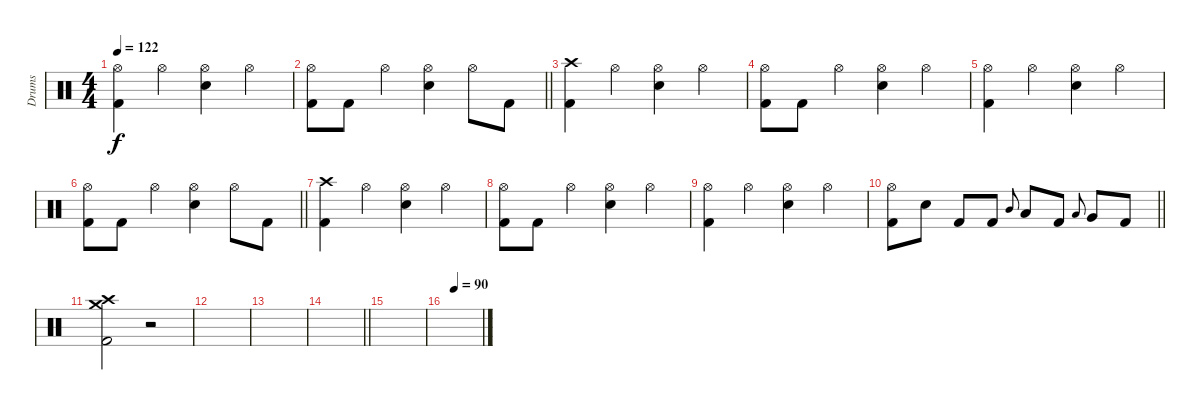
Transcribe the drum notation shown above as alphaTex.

\track ("Drums" "Drums") {instrument percussion}
\staff {score}
\articulation defaults
\ts (4 4)
\tempo 122
\clef neutral
\ks c
("Hi-Hat (open)" "Kick (hit) 2").4{dy f} "Hi-Hat (open)".4 ("Hi-Hat (open)" "Electric Snare (hit)").4 "Hi-Hat (open)".4 |
\barLineRight lightlight
("Hi-Hat (open)" "Kick (hit) 2").8 "Kick (hit) 2".8 "Hi-Hat (open)".4 ("Hi-Hat (open)" "Electric Snare (hit)").4 "Hi-Hat (open)".8 "Kick (hit) 2".8 |
("Crash high (hit)" "Kick (hit) 2").4 "Hi-Hat (open)".4 ("Hi-Hat (open)" "Electric Snare (hit)").4 "Hi-Hat (open)".4 |
("Hi-Hat (open)" "Kick (hit) 2").8 "Kick (hit) 2".8 "Hi-Hat (open)".4 ("Hi-Hat (open)" "Electric Snare (hit)").4 "Hi-Hat (open)".4 |
("Hi-Hat (open)" "Kick (hit) 2").4 "Hi-Hat (open)".4 ("Hi-Hat (open)" "Electric Snare (hit)").4 "Hi-Hat (open)".4 |
\barLineRight lightlight
("Hi-Hat (open)" "Kick (hit) 2").8 "Kick (hit) 2".8 "Hi-Hat (open)".4 ("Hi-Hat (open)" "Electric Snare (hit)").4 "Hi-Hat (open)".8 "Kick (hit) 2".8 |
("Crash high (hit)" "Kick (hit) 2").4 "Hi-Hat (open)".4 ("Hi-Hat (open)" "Electric Snare (hit)").4 "Hi-Hat (open)".4 |
("Hi-Hat (open)" "Kick (hit) 2").8 "Kick (hit) 2".8 "Hi-Hat (open)".4 ("Hi-Hat (open)" "Electric Snare (hit)").4 "Hi-Hat (open)".4 |
("Hi-Hat (open)" "Kick (hit) 2").4 "Hi-Hat (open)".4 ("Hi-Hat (open)" "Electric Snare (hit)").4 "Hi-Hat (open)".4 |
\barLineRight lightlight
("Hi-Hat (open)" "Kick (hit) 2").8 "Electric Snare (hit)".8 "Kick (hit) 2".8 "Kick (hit) 2".8 "Mid Tom (hit)".8{gr onbeat} "Low Tom (hit)".8 "Kick (hit) 2".8 "Low Tom (hit)".8{gr onbeat} "Very Low Tom (hit)".8 "Kick (hit) 2".8 |
("Crash high (hit)" "Crash medium (hit)" "Kick (hit) 2").2 r.2 |
|
|
\barLineRight lightlight
|
|
\tempo (90 0.25)
